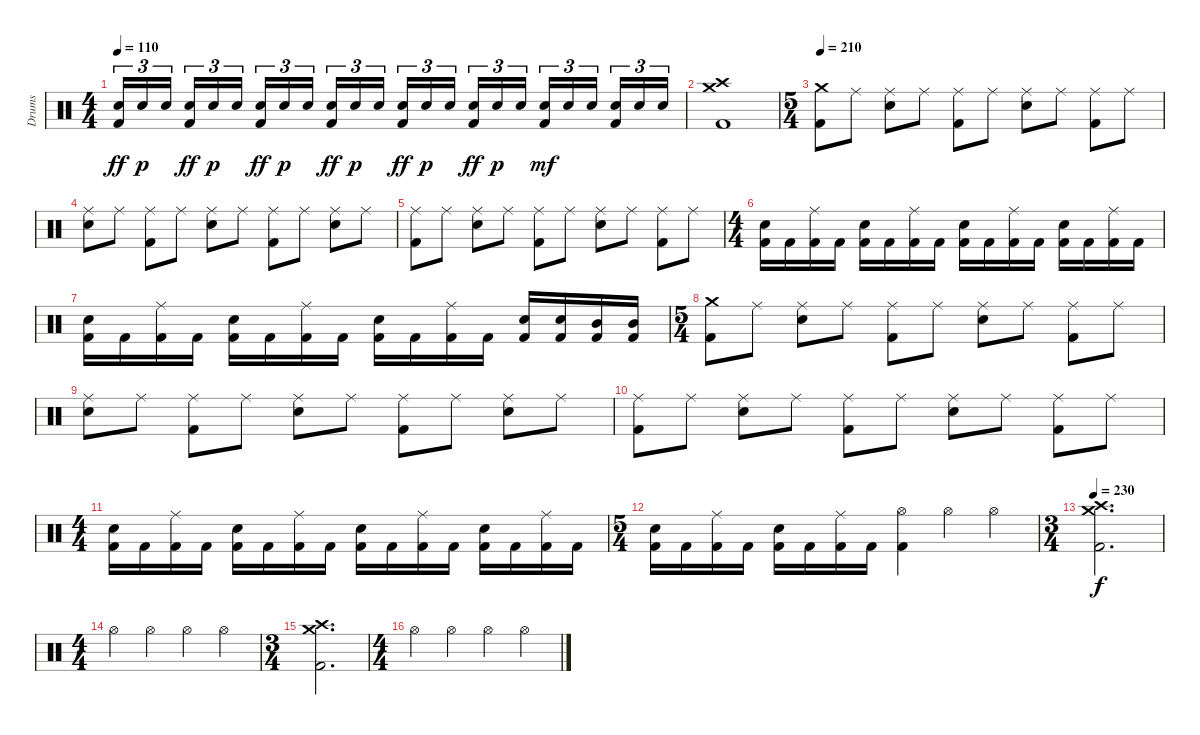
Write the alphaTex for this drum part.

\track ("Drums" "Drums") {instrument percussion}
\staff {score}
\articulation defaults
\ts (4 4)
\tempo 110
\clef neutral
\ks c
("Kick (hit) 2" "Snare (hit) 2").16{tu (3 2) dy ff} "Snare (hit) 2".16{tu (3 2) dy p} "Snare (hit) 2".16{tu (3 2) beam splitsecondary} ("Kick (hit) 2" "Snare (hit) 2").16{tu (3 2) dy ff} "Snare (hit) 2".16{tu (3 2) dy p} "Snare (hit) 2".16{tu (3 2)} ("Kick (hit) 2" "Snare (hit) 2").16{tu (3 2) dy ff} "Snare (hit) 2".16{tu (3 2) dy p} "Snare (hit) 2".16{tu (3 2) beam splitsecondary} ("Kick (hit) 2" "Snare (hit) 2").16{tu (3 2) dy ff} "Snare (hit) 2".16{tu (3 2) dy p} "Snare (hit) 2".16{tu (3 2)} ("Kick (hit) 2" "Snare (hit) 2").16{tu (3 2) dy ff} "Snare (hit) 2".16{tu (3 2) dy p} "Snare (hit) 2".16{tu (3 2) beam splitsecondary} ("Kick (hit) 2" "Snare (hit) 2").16{tu (3 2) dy ff} "Snare (hit) 2".16{tu (3 2) dy p} "Snare (hit) 2".16{tu (3 2)} ("Kick (hit) 2" "Snare (hit) 2").16{tu (3 2) dy mf} "Snare (hit) 2".16{tu (3 2)} "Snare (hit) 2".16{tu (3 2) beam splitsecondary} ("Kick (hit) 2" "Snare (hit) 2").16{tu (3 2)} "Snare (hit) 2".16{tu (3 2)} "Snare (hit) 2".16{tu (3 2)} |
("Kick (hit) 2" "Crash high (hit)" "Crash medium (hit)").1 |
\ts (5 4)
\tempo 210
("Kick (hit) 2" "Crash medium (hit)").8 "Ride (middle)".8 ("Snare (hit) 2" "Ride (middle)").8 "Ride (middle)".8 ("Kick (hit) 2" "Ride (middle)").8 "Ride (middle)".8 ("Snare (hit) 2" "Ride (middle)").8 "Ride (middle)".8 ("Kick (hit) 2" "Ride (middle)").8 "Ride (middle)".8 |
("Snare (hit) 2" "Ride (middle)").8 "Ride (middle)".8 ("Kick (hit) 2" "Ride (middle)").8 "Ride (middle)".8 ("Snare (hit) 2" "Ride (middle)").8 "Ride (middle)".8 ("Kick (hit) 2" "Ride (middle)").8 "Ride (middle)".8 ("Snare (hit) 2" "Ride (middle)").8 "Ride (middle)".8 |
("Kick (hit) 2" "Ride (middle)").8 "Ride (middle)".8 ("Snare (hit) 2" "Ride (middle)").8 "Ride (middle)".8 ("Kick (hit) 2" "Ride (middle)").8 "Ride (middle)".8 ("Snare (hit) 2" "Ride (middle)").8 "Ride (middle)".8 ("Kick (hit) 2" "Ride (middle)").8 "Ride (middle)".8 |
\ts (4 4)
("Kick (hit) 2" "Snare (hit) 2").16 "Kick (hit) 2".16 ("Kick (hit) 2" "Ride (middle)").16 "Kick (hit) 2".16 ("Kick (hit) 2" "Snare (hit) 2").16 "Kick (hit) 2".16 ("Kick (hit) 2" "Ride (middle)").16 "Kick (hit) 2".16 ("Kick (hit) 2" "Snare (hit) 2").16 "Kick (hit) 2".16 ("Kick (hit) 2" "Ride (middle)").16 "Kick (hit) 2".16 ("Kick (hit) 2" "Snare (hit) 2").16 "Kick (hit) 2".16 ("Kick (hit) 2" "Ride (middle)").16 "Kick (hit) 2".16 |
("Kick (hit) 2" "Snare (hit) 2").16 "Kick (hit) 2".16 ("Kick (hit) 2" "Ride (middle)").16 "Kick (hit) 2".16 ("Kick (hit) 2" "Snare (hit) 2").16 "Kick (hit) 2".16 ("Kick (hit) 2" "Ride (middle)").16 "Kick (hit) 2".16 ("Kick (hit) 2" "Snare (hit) 2").16 "Kick (hit) 2".16 ("Kick (hit) 2" "Ride (middle)").16 "Kick (hit) 2".16 ("Kick (hit) 2" "Snare (hit) 2").16 ("Kick (hit) 2" "Snare (hit) 2").16 ("Kick (hit) 2" "Mid Tom (hit)").16 ("Kick (hit) 2" "Mid Tom (hit)").16 |
\ts (5 4)
("Kick (hit) 2" "Crash medium (hit)").8 "Ride (middle)".8 ("Snare (hit) 2" "Ride (middle)").8 "Ride (middle)".8 ("Kick (hit) 2" "Ride (middle)").8 "Ride (middle)".8 ("Snare (hit) 2" "Ride (middle)").8 "Ride (middle)".8 ("Kick (hit) 2" "Ride (middle)").8 "Ride (middle)".8 |
("Snare (hit) 2" "Ride (middle)").8 "Ride (middle)".8 ("Kick (hit) 2" "Ride (middle)").8 "Ride (middle)".8 ("Snare (hit) 2" "Ride (middle)").8 "Ride (middle)".8 ("Kick (hit) 2" "Ride (middle)").8 "Ride (middle)".8 ("Snare (hit) 2" "Ride (middle)").8 "Ride (middle)".8 |
("Kick (hit) 2" "Ride (middle)").8 "Ride (middle)".8 ("Snare (hit) 2" "Ride (middle)").8 "Ride (middle)".8 ("Kick (hit) 2" "Ride (middle)").8 "Ride (middle)".8 ("Snare (hit) 2" "Ride (middle)").8 "Ride (middle)".8 ("Kick (hit) 2" "Ride (middle)").8 "Ride (middle)".8 |
\ts (4 4)
("Kick (hit) 2" "Snare (hit) 2").16 "Kick (hit) 2".16 ("Kick (hit) 2" "Ride (middle)").16 "Kick (hit) 2".16 ("Kick (hit) 2" "Snare (hit) 2").16 "Kick (hit) 2".16 ("Kick (hit) 2" "Ride (middle)").16 "Kick (hit) 2".16 ("Kick (hit) 2" "Snare (hit) 2").16 "Kick (hit) 2".16 ("Kick (hit) 2" "Ride (middle)").16 "Kick (hit) 2".16 ("Kick (hit) 2" "Snare (hit) 2").16 "Kick (hit) 2".16 ("Kick (hit) 2" "Ride (middle)").16 "Kick (hit) 2".16 |
\ts (5 4)
("Kick (hit) 2" "Snare (hit) 2").16 "Kick (hit) 2".16 ("Kick (hit) 2" "Ride (middle)").16 "Kick (hit) 2".16 ("Kick (hit) 2" "Snare (hit) 2").16 "Kick (hit) 2".16 ("Kick (hit) 2" "Ride (middle)").16 "Kick (hit) 2".16 ("Kick (hit) 2" "Hi-Hat (open)").4 "Hi-Hat (open)".4 "Hi-Hat (open)".4 |
\ts (3 4)
\tempo 230
("Kick (hit) 2" "Crash high (hit)" "Crash medium (hit)").2{d dy f} |
\ts (4 4)
"Hi-Hat (open)".4 "Hi-Hat (open)".4 "Hi-Hat (open)".4 "Hi-Hat (open)".4 |
\ts (3 4)
("Kick (hit) 2" "Crash high (hit)" "Crash medium (hit)").2{d} |
\ts (4 4)
"Hi-Hat (open)".4 "Hi-Hat (open)".4 "Hi-Hat (open)".4 "Hi-Hat (open)".4
